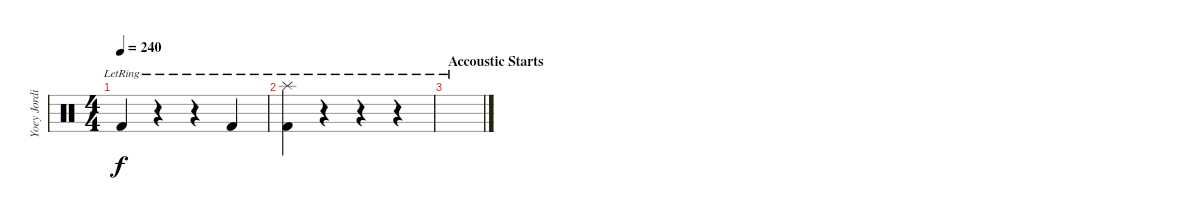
\track ("Yoey Jordison" "Yoey Jordi") {instrument percussion}
\staff {score}
\articulation defaults
\ts (4 4)
\tempo 240
\clef neutral
\ks c "Kick (hit) 2"{lr}.4{dy f}
r.4 r.4 "Kick (hit) 2"{lr}.4 |
("Splash (hit)" "Kick (hit) 2"{lr}).4 r.4 r.4 r.4 |
\section ("" "Accoustic Starts")
